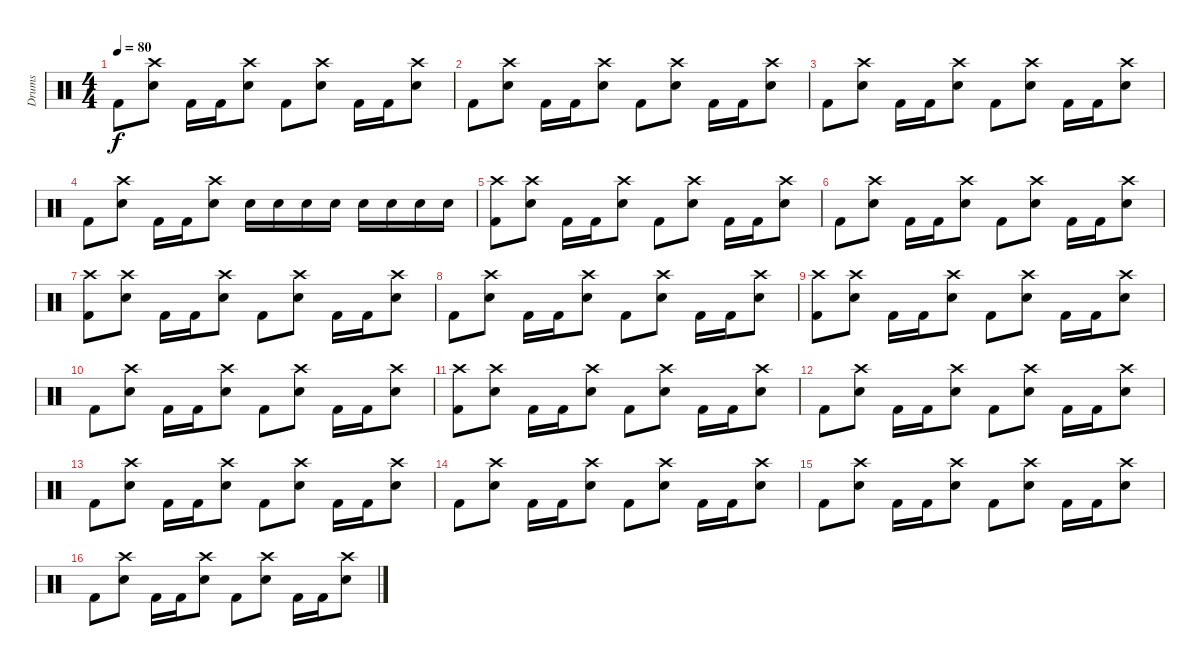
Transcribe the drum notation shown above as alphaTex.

\track ("Drums" "Drums") {instrument percussion}
\staff {score}
\articulation defaults
\ts (4 4)
\tempo 80
\clef neutral
\ks c "Kick (hit) 2".8{dy f}
("Snare (hit) 2" "Crash high (hit)").8 "Kick (hit) 2".16 "Kick (hit) 2".16 ("Snare (hit) 2" "Crash high (hit)").8 "Kick (hit) 2".8 ("Snare (hit) 2" "Crash high (hit)").8 "Kick (hit) 2".16 "Kick (hit) 2".16 ("Snare (hit) 2" "Crash high (hit)").8 |
"Kick (hit) 2".8 ("Snare (hit) 2" "Crash high (hit)").8 "Kick (hit) 2".16 "Kick (hit) 2".16 ("Snare (hit) 2" "Crash high (hit)").8 "Kick (hit) 2".8 ("Snare (hit) 2" "Crash high (hit)").8 "Kick (hit) 2".16 "Kick (hit) 2".16 ("Snare (hit) 2" "Crash high (hit)").8 |
"Kick (hit) 2".8 ("Snare (hit) 2" "Crash high (hit)").8 "Kick (hit) 2".16 "Kick (hit) 2".16 ("Snare (hit) 2" "Crash high (hit)").8 "Kick (hit) 2".8 ("Snare (hit) 2" "Crash high (hit)").8 "Kick (hit) 2".16 "Kick (hit) 2".16 ("Snare (hit) 2" "Crash high (hit)").8 |
"Kick (hit) 2".8 ("Snare (hit) 2" "Crash high (hit)").8 "Kick (hit) 2".16 "Kick (hit) 2".16 ("Snare (hit) 2" "Crash high (hit)").8 "Snare (hit) 2".16 "Snare (hit) 2".16 "Snare (hit) 2".16 "Snare (hit) 2".16 "Snare (hit) 2".16 "Snare (hit) 2".16 "Snare (hit) 2".16 "Snare (hit) 2".16 |
("Kick (hit) 2" "Crash high (hit)").8 ("Snare (hit) 2" "Crash high (hit)").8 "Kick (hit) 2".16 "Kick (hit) 2".16 ("Snare (hit) 2" "Crash high (hit)").8 "Kick (hit) 2".8 ("Snare (hit) 2" "Crash high (hit)").8 "Kick (hit) 2".16 "Kick (hit) 2".16 ("Snare (hit) 2" "Crash high (hit)").8 |
"Kick (hit) 2".8 ("Snare (hit) 2" "Crash high (hit)").8 "Kick (hit) 2".16 "Kick (hit) 2".16 ("Snare (hit) 2" "Crash high (hit)").8 "Kick (hit) 2".8 ("Snare (hit) 2" "Crash high (hit)").8 "Kick (hit) 2".16 "Kick (hit) 2".16 ("Snare (hit) 2" "Crash high (hit)").8 |
("Kick (hit) 2" "Crash high (hit)").8 ("Snare (hit) 2" "Crash high (hit)").8 "Kick (hit) 2".16 "Kick (hit) 2".16 ("Snare (hit) 2" "Crash high (hit)").8 "Kick (hit) 2".8 ("Snare (hit) 2" "Crash high (hit)").8 "Kick (hit) 2".16 "Kick (hit) 2".16 ("Snare (hit) 2" "Crash high (hit)").8 |
"Kick (hit) 2".8 ("Snare (hit) 2" "Crash high (hit)").8 "Kick (hit) 2".16 "Kick (hit) 2".16 ("Snare (hit) 2" "Crash high (hit)").8 "Kick (hit) 2".8 ("Snare (hit) 2" "Crash high (hit)").8 "Kick (hit) 2".16 "Kick (hit) 2".16 ("Snare (hit) 2" "Crash high (hit)").8 |
("Kick (hit) 2" "Crash high (hit)").8 ("Snare (hit) 2" "Crash high (hit)").8 "Kick (hit) 2".16 "Kick (hit) 2".16 ("Snare (hit) 2" "Crash high (hit)").8 "Kick (hit) 2".8 ("Snare (hit) 2" "Crash high (hit)").8 "Kick (hit) 2".16 "Kick (hit) 2".16 ("Snare (hit) 2" "Crash high (hit)").8 |
"Kick (hit) 2".8 ("Snare (hit) 2" "Crash high (hit)").8 "Kick (hit) 2".16 "Kick (hit) 2".16 ("Snare (hit) 2" "Crash high (hit)").8 "Kick (hit) 2".8 ("Snare (hit) 2" "Crash high (hit)").8 "Kick (hit) 2".16 "Kick (hit) 2".16 ("Snare (hit) 2" "Crash high (hit)").8 |
("Kick (hit) 2" "Crash high (hit)").8 ("Snare (hit) 2" "Crash high (hit)").8 "Kick (hit) 2".16 "Kick (hit) 2".16 ("Snare (hit) 2" "Crash high (hit)").8 "Kick (hit) 2".8 ("Snare (hit) 2" "Crash high (hit)").8 "Kick (hit) 2".16 "Kick (hit) 2".16 ("Snare (hit) 2" "Crash high (hit)").8 |
"Kick (hit) 2".8 ("Snare (hit) 2" "Crash high (hit)").8 "Kick (hit) 2".16 "Kick (hit) 2".16 ("Snare (hit) 2" "Crash high (hit)").8 "Kick (hit) 2".8 ("Snare (hit) 2" "Crash high (hit)").8 "Kick (hit) 2".16 "Kick (hit) 2".16 ("Snare (hit) 2" "Crash high (hit)").8 |
"Kick (hit) 2".8 ("Snare (hit) 2" "Crash high (hit)").8 "Kick (hit) 2".16 "Kick (hit) 2".16 ("Snare (hit) 2" "Crash high (hit)").8 "Kick (hit) 2".8 ("Snare (hit) 2" "Crash high (hit)").8 "Kick (hit) 2".16 "Kick (hit) 2".16 ("Snare (hit) 2" "Crash high (hit)").8 |
"Kick (hit) 2".8 ("Snare (hit) 2" "Crash high (hit)").8 "Kick (hit) 2".16 "Kick (hit) 2".16 ("Snare (hit) 2" "Crash high (hit)").8 "Kick (hit) 2".8 ("Snare (hit) 2" "Crash high (hit)").8 "Kick (hit) 2".16 "Kick (hit) 2".16 ("Snare (hit) 2" "Crash high (hit)").8 |
"Kick (hit) 2".8 ("Snare (hit) 2" "Crash high (hit)").8 "Kick (hit) 2".16 "Kick (hit) 2".16 ("Snare (hit) 2" "Crash high (hit)").8 "Kick (hit) 2".8 ("Snare (hit) 2" "Crash high (hit)").8 "Kick (hit) 2".16 "Kick (hit) 2".16 ("Snare (hit) 2" "Crash high (hit)").8 |
"Kick (hit) 2".8 ("Snare (hit) 2" "Crash high (hit)").8 "Kick (hit) 2".16 "Kick (hit) 2".16 ("Snare (hit) 2" "Crash high (hit)").8 "Kick (hit) 2".8 ("Snare (hit) 2" "Crash high (hit)").8 "Kick (hit) 2".16 "Kick (hit) 2".16 ("Snare (hit) 2" "Crash high (hit)").8
